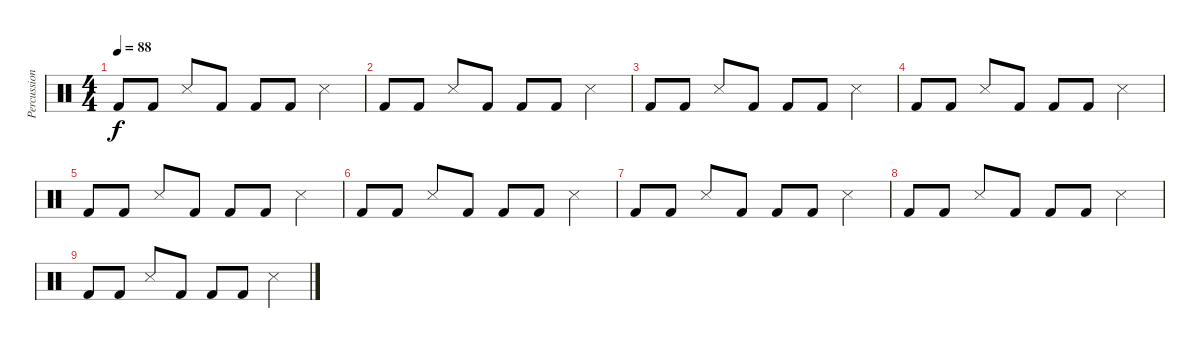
\track ("Percussions" "Percussion") {instrument percussion}
\staff {score}
\articulation defaults
\ts (4 4)
\tempo 88
\clef neutral
\ks c "Kick (hit) 2".8{dy f} "Kick (hit) 2".8 "Snare (side stick) 3".8 "Kick (hit) 2".8 "Kick (hit) 2".8 "Kick (hit) 2".8 "Snare (side stick) 3".4
|
"Kick (hit) 2".8 "Kick (hit) 2".8 "Snare (side stick) 3".8 "Kick (hit) 2".8 "Kick (hit) 2".8 "Kick (hit) 2".8 "Snare (side stick) 3".4 |
"Kick (hit) 2".8 "Kick (hit) 2".8 "Snare (side stick) 3".8 "Kick (hit) 2".8 "Kick (hit) 2".8 "Kick (hit) 2".8 "Snare (side stick) 3".4 |
"Kick (hit) 2".8 "Kick (hit) 2".8 "Snare (side stick) 3".8 "Kick (hit) 2".8 "Kick (hit) 2".8 "Kick (hit) 2".8 "Snare (side stick) 3".4 |
"Kick (hit) 2".8 "Kick (hit) 2".8 "Snare (side stick) 3".8 "Kick (hit) 2".8 "Kick (hit) 2".8 "Kick (hit) 2".8 "Snare (side stick) 3".4 |
"Kick (hit) 2".8 "Kick (hit) 2".8 "Snare (side stick) 3".8 "Kick (hit) 2".8 "Kick (hit) 2".8 "Kick (hit) 2".8 "Snare (side stick) 3".4 |
"Kick (hit) 2".8 "Kick (hit) 2".8 "Snare (side stick) 3".8 "Kick (hit) 2".8 "Kick (hit) 2".8 "Kick (hit) 2".8 "Snare (side stick) 3".4 |
"Kick (hit) 2".8 "Kick (hit) 2".8 "Snare (side stick) 3".8 "Kick (hit) 2".8 "Kick (hit) 2".8 "Kick (hit) 2".8 "Snare (side stick) 3".4 |
"Kick (hit) 2".8 "Kick (hit) 2".8 "Snare (side stick) 3".8 "Kick (hit) 2".8 "Kick (hit) 2".8 "Kick (hit) 2".8 "Snare (side stick) 3".4
